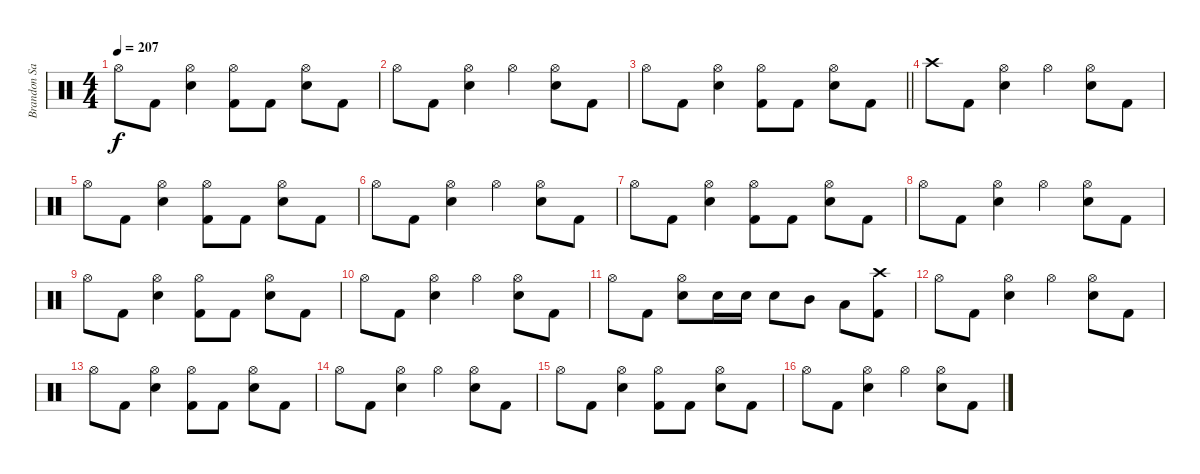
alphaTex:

\track ("Brandon Saller" "Brandon Sa") {instrument percussion}
\staff {score}
\articulation defaults
\ts (4 4)
\tempo 207
\clef neutral
\ks c "Hi-Hat (open)".8{dy f} "Kick (hit) 2".8
("Hi-Hat (open)" "Electric Snare (hit)").4 ("Hi-Hat (open)" "Kick (hit) 2").8 "Kick (hit) 2".8 ("Hi-Hat (open)" "Electric Snare (hit)").8 "Kick (hit) 2".8 |
"Hi-Hat (open)".8 "Kick (hit) 2".8 ("Hi-Hat (open)" "Electric Snare (hit)").4 "Hi-Hat (open)".4 ("Hi-Hat (open)" "Electric Snare (hit)").8 "Kick (hit) 2".8 |
\barLineRight lightlight "Hi-Hat (open)".8 "Kick (hit) 2".8
("Hi-Hat (open)" "Electric Snare (hit)").4 ("Hi-Hat (open)" "Kick (hit) 2").8 "Kick (hit) 2".8 ("Hi-Hat (open)" "Electric Snare (hit)").8 "Kick (hit) 2".8 |
"Crash high (hit)".8 "Kick (hit) 2".8 ("Hi-Hat (open)" "Electric Snare (hit)").4 "Hi-Hat (open)".4 ("Hi-Hat (open)" "Electric Snare (hit)").8 "Kick (hit) 2".8 |
"Hi-Hat (open)".8 "Kick (hit) 2".8 ("Hi-Hat (open)" "Electric Snare (hit)").4 ("Hi-Hat (open)" "Kick (hit) 2").8 "Kick (hit) 2".8 ("Hi-Hat (open)" "Electric Snare (hit)").8 "Kick (hit) 2".8 |
"Hi-Hat (open)".8 "Kick (hit) 2".8 ("Hi-Hat (open)" "Electric Snare (hit)").4 "Hi-Hat (open)".4 ("Hi-Hat (open)" "Electric Snare (hit)").8 "Kick (hit) 2".8 |
"Hi-Hat (open)".8 "Kick (hit) 2".8 ("Hi-Hat (open)" "Electric Snare (hit)").4 ("Hi-Hat (open)" "Kick (hit) 2").8 "Kick (hit) 2".8 ("Hi-Hat (open)" "Electric Snare (hit)").8 "Kick (hit) 2".8 |
"Hi-Hat (open)".8 "Kick (hit) 2".8 ("Hi-Hat (open)" "Electric Snare (hit)").4 "Hi-Hat (open)".4 ("Hi-Hat (open)" "Electric Snare (hit)").8 "Kick (hit) 2".8 |
"Hi-Hat (open)".8 "Kick (hit) 2".8 ("Hi-Hat (open)" "Electric Snare (hit)").4 ("Hi-Hat (open)" "Kick (hit) 2").8 "Kick (hit) 2".8 ("Hi-Hat (open)" "Electric Snare (hit)").8 "Kick (hit) 2".8 |
"Hi-Hat (open)".8 "Kick (hit) 2".8 ("Hi-Hat (open)" "Electric Snare (hit)").4 "Hi-Hat (open)".4 ("Hi-Hat (open)" "Electric Snare (hit)").8 "Kick (hit) 2".8 |
"Hi-Hat (open)".8 "Kick (hit) 2".8 ("Hi-Hat (open)" "Electric Snare (hit)").8 "Electric Snare (hit)".16 "Electric Snare (hit)".16 "Electric Snare (hit)".8 "Mid Tom (hit)".8 "Low Tom (hit)".8 ("Crash high (hit)" "Kick (hit) 2").8 |
"Hi-Hat (open)".8 "Kick (hit) 2".8 ("Hi-Hat (open)" "Electric Snare (hit)").4 "Hi-Hat (open)".4 ("Hi-Hat (open)" "Electric Snare (hit)").8 "Kick (hit) 2".8 |
"Hi-Hat (open)".8 "Kick (hit) 2".8 ("Hi-Hat (open)" "Electric Snare (hit)").4 ("Hi-Hat (open)" "Kick (hit) 2").8 "Kick (hit) 2".8 ("Hi-Hat (open)" "Electric Snare (hit)").8 "Kick (hit) 2".8 |
"Hi-Hat (open)".8 "Kick (hit) 2".8 ("Hi-Hat (open)" "Electric Snare (hit)").4 "Hi-Hat (open)".4 ("Hi-Hat (open)" "Electric Snare (hit)").8 "Kick (hit) 2".8 |
"Hi-Hat (open)".8 "Kick (hit) 2".8 ("Hi-Hat (open)" "Electric Snare (hit)").4 ("Hi-Hat (open)" "Kick (hit) 2").8 "Kick (hit) 2".8 ("Hi-Hat (open)" "Electric Snare (hit)").8 "Kick (hit) 2".8 |
"Hi-Hat (open)".8 "Kick (hit) 2".8 ("Hi-Hat (open)" "Electric Snare (hit)").4 "Hi-Hat (open)".4 ("Hi-Hat (open)" "Electric Snare (hit)").8 "Kick (hit) 2".8
